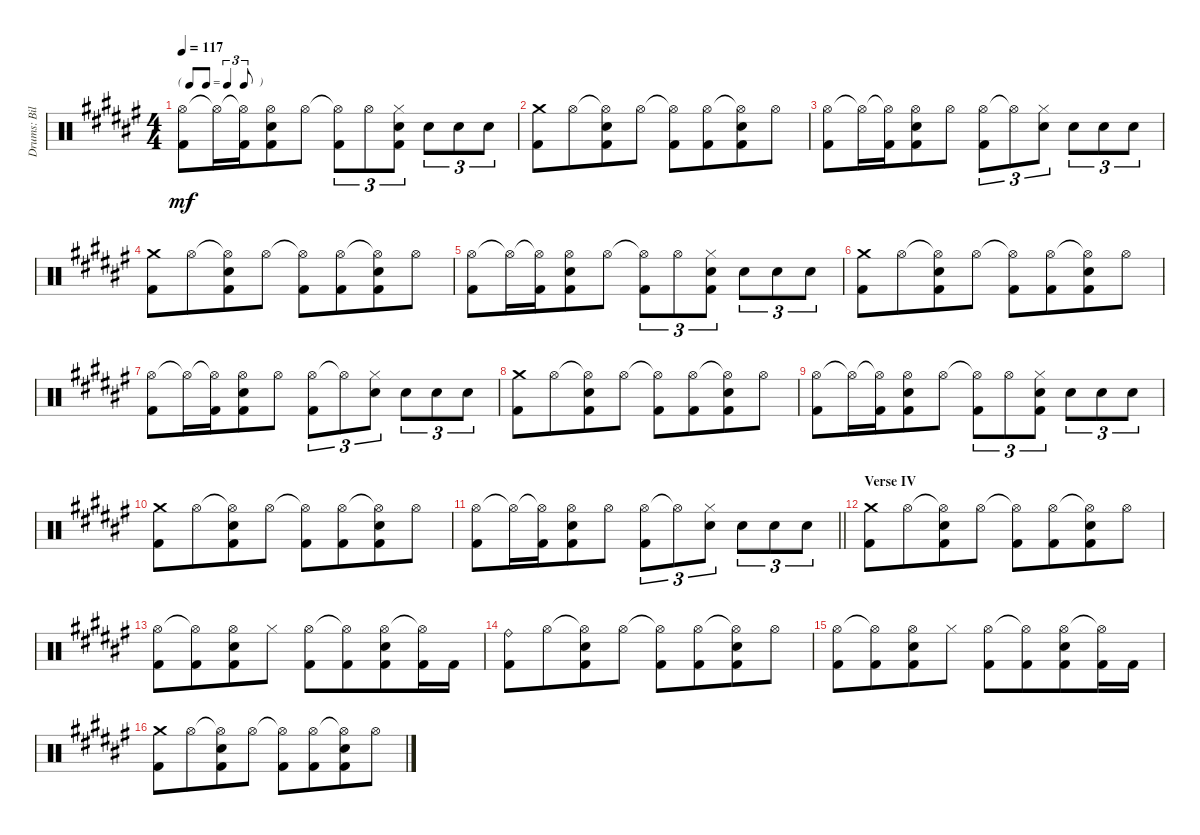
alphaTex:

\track ("Drums: Bill" "Drums: Bil") {instrument percussion}
\staff {score}
\articulation defaults
\ts (4 4)
\tf triplet8th
\tempo 117
\clef neutral
\ks f#
("Hi-Hat (open)" "Kick (hit) 2").8{dy mf} "Hi-Hat (open)"{t}.16 ("Hi-Hat (open)"{t} "Kick (hit) 2").16{beam merge} ("Hi-Hat (open)" "Snare (hit) 2" "Kick (hit) 2").8 "Hi-Hat (open)".8 ("Hi-Hat (open)"{t} "Kick (hit) 2").8{tu (3 2)} "Hi-Hat (open)".8{tu (3 2)} ("Hi-Hat (closed)" "Electric Snare (hit)" "Kick (hit) 2").8{tu (3 2)} "Electric Snare (hit)".8{tu (3 2)} "Electric Snare (hit)".8{tu (3 2)} "Electric Snare (hit)".8{tu (3 2)} |
("Crash medium (hit)" "Kick (hit) 2").8 "Hi-Hat (open)".8{beam merge} ("Hi-Hat (open)"{t} "Electric Snare (hit)" "Kick (hit) 2").8 "Hi-Hat (open)".8 ("Hi-Hat (open)"{t} "Kick (hit) 2").8 ("Hi-Hat (open)" "Kick (hit) 2").8{beam merge} ("Hi-Hat (open)"{t} "Electric Snare (hit)" "Kick (hit) 2").8 "Hi-Hat (open)".8 |
("Hi-Hat (open)" "Kick (hit) 2").8 "Hi-Hat (open)"{t}.16 ("Hi-Hat (open)"{t} "Kick (hit) 2").16{beam merge} ("Hi-Hat (open)" "Snare (hit) 2" "Kick (hit) 2").8 "Hi-Hat (open)".8 ("Hi-Hat (open)" "Kick (hit) 2").8{tu (3 2)} "Hi-Hat (open)"{t}.8{tu (3 2)} ("Hi-Hat (closed)" "Electric Snare (hit)").8{tu (3 2)} "Electric Snare (hit)".8{tu (3 2)} "Electric Snare (hit)".8{tu (3 2)} "Electric Snare (hit)".8{tu (3 2)} |
("Crash medium (hit)" "Kick (hit) 2").8 "Hi-Hat (open)".8{beam merge} ("Hi-Hat (open)"{t} "Electric Snare (hit)" "Kick (hit) 2").8 "Hi-Hat (open)".8 ("Hi-Hat (open)"{t} "Kick (hit) 2").8 ("Hi-Hat (open)" "Kick (hit) 2").8{beam merge} ("Hi-Hat (open)"{t} "Electric Snare (hit)" "Kick (hit) 2").8 "Hi-Hat (open)".8 |
("Hi-Hat (open)" "Kick (hit) 2").8 "Hi-Hat (open)"{t}.16 ("Hi-Hat (open)"{t} "Kick (hit) 2").16{beam merge} ("Hi-Hat (open)" "Snare (hit) 2" "Kick (hit) 2").8 "Hi-Hat (open)".8 ("Hi-Hat (open)"{t} "Kick (hit) 2").8{tu (3 2)} "Hi-Hat (open)".8{tu (3 2)} ("Hi-Hat (closed)" "Electric Snare (hit)" "Kick (hit) 2").8{tu (3 2)} "Electric Snare (hit)".8{tu (3 2)} "Electric Snare (hit)".8{tu (3 2)} "Electric Snare (hit)".8{tu (3 2)} |
("Crash medium (hit)" "Kick (hit) 2").8 "Hi-Hat (open)".8{beam merge} ("Hi-Hat (open)"{t} "Electric Snare (hit)" "Kick (hit) 2").8 "Hi-Hat (open)".8 ("Hi-Hat (open)"{t} "Kick (hit) 2").8 ("Hi-Hat (open)" "Kick (hit) 2").8{beam merge} ("Hi-Hat (open)"{t} "Electric Snare (hit)" "Kick (hit) 2").8 "Hi-Hat (open)".8 |
("Hi-Hat (open)" "Kick (hit) 2").8 "Hi-Hat (open)"{t}.16 ("Hi-Hat (open)"{t} "Kick (hit) 2").16{beam merge} ("Hi-Hat (open)" "Snare (hit) 2" "Kick (hit) 2").8 "Hi-Hat (open)".8 ("Hi-Hat (open)" "Kick (hit) 2").8{tu (3 2)} "Hi-Hat (open)"{t}.8{tu (3 2)} ("Hi-Hat (closed)" "Electric Snare (hit)").8{tu (3 2)} "Electric Snare (hit)".8{tu (3 2)} "Electric Snare (hit)".8{tu (3 2)} "Electric Snare (hit)".8{tu (3 2)} |
("Crash medium (hit)" "Kick (hit) 2").8 "Hi-Hat (open)".8{beam merge} ("Hi-Hat (open)"{t} "Electric Snare (hit)" "Kick (hit) 2").8 "Hi-Hat (open)".8 ("Hi-Hat (open)"{t} "Kick (hit) 2").8 ("Hi-Hat (open)" "Kick (hit) 2").8{beam merge} ("Hi-Hat (open)"{t} "Electric Snare (hit)" "Kick (hit) 2").8 "Hi-Hat (open)".8 |
("Hi-Hat (open)" "Kick (hit) 2").8 "Hi-Hat (open)"{t}.16 ("Hi-Hat (open)"{t} "Kick (hit) 2").16{beam merge} ("Hi-Hat (open)" "Snare (hit) 2" "Kick (hit) 2").8 "Hi-Hat (open)".8 ("Hi-Hat (open)"{t} "Kick (hit) 2").8{tu (3 2)} "Hi-Hat (open)".8{tu (3 2)} ("Hi-Hat (closed)" "Electric Snare (hit)" "Kick (hit) 2").8{tu (3 2)} "Electric Snare (hit)".8{tu (3 2)} "Electric Snare (hit)".8{tu (3 2)} "Electric Snare (hit)".8{tu (3 2)} |
("Crash medium (hit)" "Kick (hit) 2").8 "Hi-Hat (open)".8{beam merge} ("Hi-Hat (open)"{t} "Electric Snare (hit)" "Kick (hit) 2").8 "Hi-Hat (open)".8 ("Hi-Hat (open)"{t} "Kick (hit) 2").8 ("Hi-Hat (open)" "Kick (hit) 2").8{beam merge} ("Hi-Hat (open)"{t} "Electric Snare (hit)" "Kick (hit) 2").8 "Hi-Hat (open)".8 |
\barLineRight lightlight
("Hi-Hat (open)" "Kick (hit) 2").8 "Hi-Hat (open)"{t}.16 ("Hi-Hat (open)"{t} "Kick (hit) 2").16{beam merge} ("Hi-Hat (open)" "Snare (hit) 2" "Kick (hit) 2").8 "Hi-Hat (open)".8 ("Hi-Hat (open)" "Kick (hit) 2").8{tu (3 2)} "Hi-Hat (open)"{t}.8{tu (3 2)} ("Hi-Hat (closed)" "Electric Snare (hit)").8{tu (3 2)} "Electric Snare (hit)".8{tu (3 2)} "Electric Snare (hit)".8{tu (3 2)} "Electric Snare (hit)".8{tu (3 2)} |
\section ("" "Verse IV")
("Crash medium (hit)" "Kick (hit) 2").8 "Hi-Hat (open)".8{beam merge} ("Hi-Hat (open)"{t} "Electric Snare (hit)" "Kick (hit) 2").8 "Hi-Hat (open)".8 ("Hi-Hat (open)"{t} "Kick (hit) 2").8 ("Hi-Hat (open)" "Kick (hit) 2").8{beam merge} ("Hi-Hat (open)"{t} "Electric Snare (hit)" "Kick (hit) 2").8 "Hi-Hat (open)".8 |
("Hi-Hat (open)" "Kick (hit) 2").8 ("Hi-Hat (open)"{t} "Kick (hit) 2").8{beam merge} ("Hi-Hat (open)" "Snare (hit) 2" "Kick (hit) 2").8 "Hi-Hat (closed)".8 ("Hi-Hat (open)" "Kick (hit) 2").8 ("Hi-Hat (open)"{t} "Kick (hit) 2").8{beam merge} ("Hi-Hat (open)" "Electric Snare (hit)" "Kick (hit) 2").8 ("Hi-Hat (open)"{t} "Kick (hit) 2").16 "Kick (hit) 2".16 |
("Ride (bell)" "Kick (hit) 2").8 "Hi-Hat (open)".8{beam merge} ("Hi-Hat (open)"{t} "Electric Snare (hit)" "Kick (hit) 2").8 "Hi-Hat (open)".8 ("Hi-Hat (open)"{t} "Kick (hit) 2").8 ("Hi-Hat (open)" "Kick (hit) 2").8{beam merge} ("Hi-Hat (open)"{t} "Electric Snare (hit)" "Kick (hit) 2").8 "Hi-Hat (open)".8 |
("Hi-Hat (open)" "Kick (hit) 2").8 ("Hi-Hat (open)"{t} "Kick (hit) 2").8{beam merge} ("Hi-Hat (open)" "Snare (hit) 2" "Kick (hit) 2").8 "Hi-Hat (closed)".8 ("Hi-Hat (open)" "Kick (hit) 2").8 ("Hi-Hat (open)"{t} "Kick (hit) 2").8{beam merge} ("Hi-Hat (open)" "Electric Snare (hit)" "Kick (hit) 2").8 ("Hi-Hat (open)"{t} "Kick (hit) 2").16 "Kick (hit) 2".16 |
("Crash medium (hit)" "Kick (hit) 2").8 "Hi-Hat (open)".8{beam merge} ("Hi-Hat (open)"{t} "Electric Snare (hit)" "Kick (hit) 2").8 "Hi-Hat (open)".8 ("Hi-Hat (open)"{t} "Kick (hit) 2").8 ("Hi-Hat (open)" "Kick (hit) 2").8{beam merge} ("Hi-Hat (open)"{t} "Electric Snare (hit)" "Kick (hit) 2").8 "Hi-Hat (open)".8
